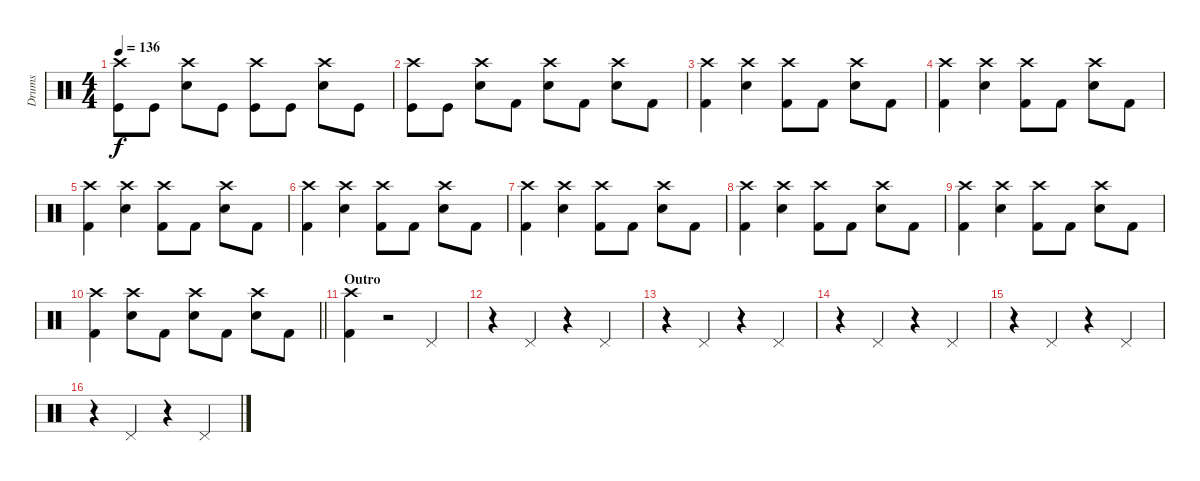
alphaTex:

\track ("Drums" "Drums") {instrument percussion}
\staff {score}
\articulation defaults
\ts (4 4)
\tempo 136
\clef neutral
\ks c
("Crash high (hit)" "Kick (hit)").8{dy f} "Kick (hit)".8 ("Crash high (hit)" "Electric Snare (hit)").8 "Kick (hit)".8 ("Crash high (hit)" "Kick (hit)").8 "Kick (hit)".8 ("Crash high (hit)" "Electric Snare (hit)").8 "Kick (hit)".8 |
("Crash high (hit)" "Kick (hit)").8 "Kick (hit)".8 ("Crash high (hit)" "Electric Snare (hit)").8 "Kick (hit) 2".8 ("Crash high (hit)" "Electric Snare (hit)").8 "Kick (hit) 2".8 ("Crash high (hit)" "Electric Snare (hit)").8 "Kick (hit) 2".8 |
("Crash high (hit)" "Kick (hit) 2").4 ("Crash high (hit)" "Electric Snare (hit)").4 ("Crash high (hit)" "Kick (hit) 2").8 "Kick (hit) 2".8 ("Crash high (hit)" "Electric Snare (hit)").8 "Kick (hit) 2".8 |
("Crash high (hit)" "Kick (hit) 2").4 ("Crash high (hit)" "Electric Snare (hit)").4 ("Crash high (hit)" "Kick (hit) 2").8 "Kick (hit) 2".8 ("Crash high (hit)" "Electric Snare (hit)").8 "Kick (hit) 2".8 |
("Crash high (hit)" "Kick (hit) 2").4 ("Crash high (hit)" "Electric Snare (hit)").4 ("Crash high (hit)" "Kick (hit) 2").8 "Kick (hit) 2".8 ("Crash high (hit)" "Electric Snare (hit)").8 "Kick (hit) 2".8 |
("Crash high (hit)" "Kick (hit) 2").4 ("Crash high (hit)" "Electric Snare (hit)").4 ("Crash high (hit)" "Kick (hit) 2").8 "Kick (hit) 2".8 ("Crash high (hit)" "Electric Snare (hit)").8 "Kick (hit) 2".8 |
("Crash high (hit)" "Kick (hit) 2").4 ("Crash high (hit)" "Electric Snare (hit)").4 ("Crash high (hit)" "Kick (hit) 2").8 "Kick (hit) 2".8 ("Crash high (hit)" "Electric Snare (hit)").8 "Kick (hit) 2".8 |
("Crash high (hit)" "Kick (hit) 2").4 ("Crash high (hit)" "Electric Snare (hit)").4 ("Crash high (hit)" "Kick (hit) 2").8 "Kick (hit) 2".8 ("Crash high (hit)" "Electric Snare (hit)").8 "Kick (hit) 2".8 |
("Crash high (hit)" "Kick (hit) 2").4 ("Crash high (hit)" "Electric Snare (hit)").4 ("Crash high (hit)" "Kick (hit) 2").8 "Kick (hit) 2".8 ("Crash high (hit)" "Electric Snare (hit)").8 "Kick (hit) 2".8 |
\barLineRight lightlight
("Crash high (hit)" "Kick (hit) 2").4 ("Crash high (hit)" "Electric Snare (hit)").8 "Kick (hit) 2".8 ("Crash high (hit)" "Electric Snare (hit)").8 "Kick (hit) 2".8 ("Crash high (hit)" "Electric Snare (hit)").8 "Kick (hit) 2".8 |
\section ("" "Outro")
("Crash high (hit)" "Kick (hit) 2").4 r.2 "Pedal Hi-Hat (hit)".4 |
r.4 "Pedal Hi-Hat (hit)".4 r.4 "Pedal Hi-Hat (hit)".4 |
r.4 "Pedal Hi-Hat (hit)".4 r.4 "Pedal Hi-Hat (hit)".4 |
r.4 "Pedal Hi-Hat (hit)".4 r.4 "Pedal Hi-Hat (hit)".4 |
r.4 "Pedal Hi-Hat (hit)".4 r.4 "Pedal Hi-Hat (hit)".4 |
r.4 "Pedal Hi-Hat (hit)".4 r.4 "Pedal Hi-Hat (hit)".4
